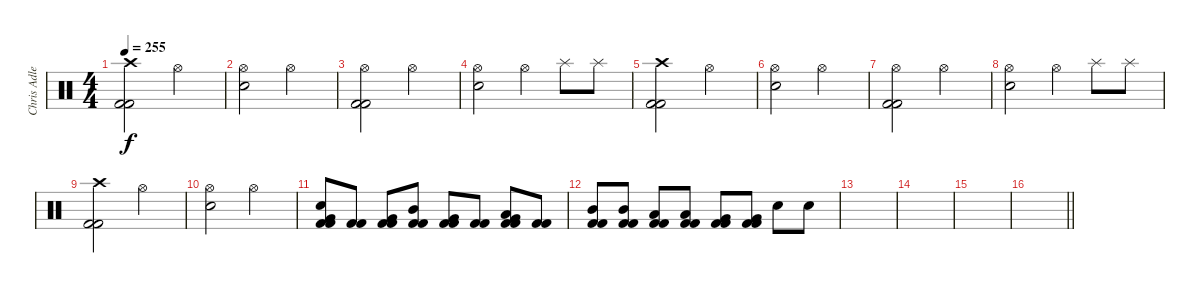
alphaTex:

\track ("Chris Adler" "Chris Adle") {instrument percussion}
\staff {score}
\articulation defaults
\ts (4 4)
\tempo 255
\clef neutral
\ks c
("Crash high (hit)" "Kick (hit) 2" "Kick (hit) 2").2{dy f} "Hi-Hat (open)".2 |
("Hi-Hat (open)" "Electric Snare (hit)").2 "Hi-Hat (open)".2 |
("Hi-Hat (open)" "Kick (hit) 2" "Kick (hit) 2").2 "Hi-Hat (open)".2 |
("Hi-Hat (open)" "Electric Snare (hit)").2 "Hi-Hat (open)".4 "Splash (hit)".8 "Splash (hit)".8 |
("Crash high (hit)" "Kick (hit) 2" "Kick (hit) 2").2 "Hi-Hat (open)".2 |
("Hi-Hat (open)" "Electric Snare (hit)").2 "Hi-Hat (open)".2 |
("Hi-Hat (open)" "Kick (hit) 2" "Kick (hit) 2").2 "Hi-Hat (open)".2 |
("Hi-Hat (open)" "Electric Snare (hit)").2 "Hi-Hat (open)".4 "Splash (hit)".8 "Splash (hit)".8 |
("Crash high (hit)" "Kick (hit) 2" "Kick (hit) 2").2 "Hi-Hat (open)".2 |
("Hi-Hat (open)" "Electric Snare (hit)").2 "Hi-Hat (open)".2 |
("Very Low Tom (hit)" "Electric Snare (hit)" "Kick (hit) 2" "Kick (hit) 2").8 ("Kick (hit) 2" "Kick (hit) 2").8 ("Very Low Tom (hit)" "Kick (hit) 2" "Kick (hit) 2").8 ("Mid Tom (hit)" "Kick (hit) 2" "Kick (hit) 2").8 ("Very Low Tom (hit)" "Kick (hit) 2" "Kick (hit) 2").8 ("Kick (hit) 2" "Kick (hit) 2").8 ("Low Tom (hit)" "Very Low Tom (hit)" "Kick (hit) 2" "Kick (hit) 2").8 ("Kick (hit) 2" "Kick (hit) 2").8 |
("Mid Tom (hit)" "Kick (hit) 2" "Kick (hit) 2").8 ("Mid Tom (hit)" "Kick (hit) 2" "Kick (hit) 2").8 ("Low Tom (hit)" "Kick (hit) 2" "Kick (hit) 2").8 ("Low Tom (hit)" "Kick (hit) 2" "Kick (hit) 2").8 ("Very Low Tom (hit)" "Kick (hit) 2" "Kick (hit) 2").8 ("Very Low Tom (hit)" "Kick (hit) 2" "Kick (hit) 2").8 "Electric Snare (hit)".8 "Electric Snare (hit)".8 |
|
|
|
\barLineRight lightlight
